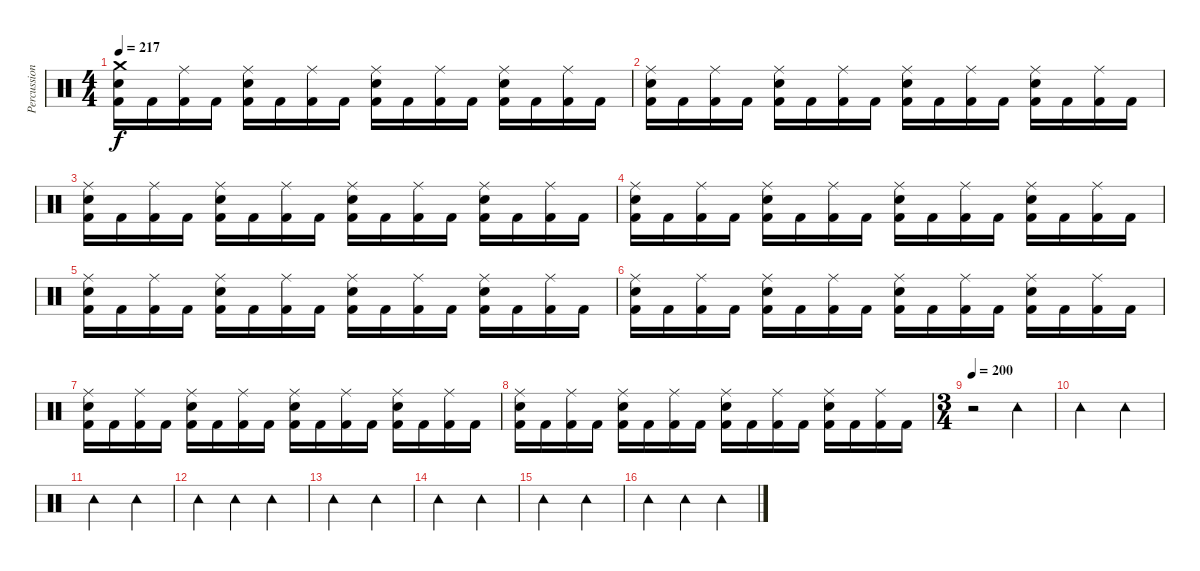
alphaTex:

\track ("Percussions" "Percussion") {instrument percussion}
\staff {score}
\articulation defaults
\ts (4 4)
\tempo 217
\clef neutral
\ks c
("Crash medium (hit)" "Electric Snare (hit)" "Kick (hit) 2").16{dy f} "Kick (hit) 2".16 ("Ride (middle)" "Kick (hit) 2").16 "Kick (hit) 2".16 ("Ride (middle)" "Electric Snare (hit)" "Kick (hit) 2").16 "Kick (hit) 2".16 ("Ride (middle)" "Kick (hit) 2").16 "Kick (hit) 2".16 ("Ride (middle)" "Electric Snare (hit)" "Kick (hit) 2").16 "Kick (hit) 2".16 ("Ride (middle)" "Kick (hit) 2").16 "Kick (hit) 2".16 ("Ride (middle)" "Electric Snare (hit)" "Kick (hit) 2").16 "Kick (hit) 2".16 ("Ride (middle)" "Kick (hit) 2").16 "Kick (hit) 2".16 |
("Ride (middle)" "Electric Snare (hit)" "Kick (hit) 2").16 "Kick (hit) 2".16 ("Ride (middle)" "Kick (hit) 2").16 "Kick (hit) 2".16 ("Ride (middle)" "Electric Snare (hit)" "Kick (hit) 2").16 "Kick (hit) 2".16 ("Ride (middle)" "Kick (hit) 2").16 "Kick (hit) 2".16 ("Ride (middle)" "Electric Snare (hit)" "Kick (hit) 2").16 "Kick (hit) 2".16 ("Ride (middle)" "Kick (hit) 2").16 "Kick (hit) 2".16 ("Ride (middle)" "Electric Snare (hit)" "Kick (hit) 2").16 "Kick (hit) 2".16 ("Ride (middle)" "Kick (hit) 2").16 "Kick (hit) 2".16 |
("Ride (middle)" "Electric Snare (hit)" "Kick (hit) 2").16 "Kick (hit) 2".16 ("Ride (middle)" "Kick (hit) 2").16 "Kick (hit) 2".16 ("Ride (middle)" "Electric Snare (hit)" "Kick (hit) 2").16 "Kick (hit) 2".16 ("Ride (middle)" "Kick (hit) 2").16 "Kick (hit) 2".16 ("Ride (middle)" "Electric Snare (hit)" "Kick (hit) 2").16 "Kick (hit) 2".16 ("Ride (middle)" "Kick (hit) 2").16 "Kick (hit) 2".16 ("Ride (middle)" "Electric Snare (hit)" "Kick (hit) 2").16 "Kick (hit) 2".16 ("Ride (middle)" "Kick (hit) 2").16 "Kick (hit) 2".16 |
("Ride (middle)" "Electric Snare (hit)" "Kick (hit) 2").16 "Kick (hit) 2".16 ("Ride (middle)" "Kick (hit) 2").16 "Kick (hit) 2".16 ("Ride (middle)" "Electric Snare (hit)" "Kick (hit) 2").16 "Kick (hit) 2".16 ("Ride (middle)" "Kick (hit) 2").16 "Kick (hit) 2".16 ("Ride (middle)" "Electric Snare (hit)" "Kick (hit) 2").16 "Kick (hit) 2".16 ("Ride (middle)" "Kick (hit) 2").16 "Kick (hit) 2".16 ("Ride (middle)" "Electric Snare (hit)" "Kick (hit) 2").16 "Kick (hit) 2".16 ("Ride (middle)" "Kick (hit) 2").16 "Kick (hit) 2".16 |
("Ride (middle)" "Electric Snare (hit)" "Kick (hit) 2").16 "Kick (hit) 2".16 ("Ride (middle)" "Kick (hit) 2").16 "Kick (hit) 2".16 ("Ride (middle)" "Electric Snare (hit)" "Kick (hit) 2").16 "Kick (hit) 2".16 ("Ride (middle)" "Kick (hit) 2").16 "Kick (hit) 2".16 ("Ride (middle)" "Electric Snare (hit)" "Kick (hit) 2").16 "Kick (hit) 2".16 ("Ride (middle)" "Kick (hit) 2").16 "Kick (hit) 2".16 ("Ride (middle)" "Electric Snare (hit)" "Kick (hit) 2").16 "Kick (hit) 2".16 ("Ride (middle)" "Kick (hit) 2").16 "Kick (hit) 2".16 |
("Ride (middle)" "Electric Snare (hit)" "Kick (hit) 2").16 "Kick (hit) 2".16 ("Ride (middle)" "Kick (hit) 2").16 "Kick (hit) 2".16 ("Ride (middle)" "Electric Snare (hit)" "Kick (hit) 2").16 "Kick (hit) 2".16 ("Ride (middle)" "Kick (hit) 2").16 "Kick (hit) 2".16 ("Ride (middle)" "Electric Snare (hit)" "Kick (hit) 2").16 "Kick (hit) 2".16 ("Ride (middle)" "Kick (hit) 2").16 "Kick (hit) 2".16 ("Ride (middle)" "Electric Snare (hit)" "Kick (hit) 2").16 "Kick (hit) 2".16 ("Ride (middle)" "Kick (hit) 2").16 "Kick (hit) 2".16 |
("Ride (middle)" "Electric Snare (hit)" "Kick (hit) 2").16 "Kick (hit) 2".16 ("Ride (middle)" "Kick (hit) 2").16 "Kick (hit) 2".16 ("Ride (middle)" "Electric Snare (hit)" "Kick (hit) 2").16 "Kick (hit) 2".16 ("Ride (middle)" "Kick (hit) 2").16 "Kick (hit) 2".16 ("Ride (middle)" "Electric Snare (hit)" "Kick (hit) 2").16 "Kick (hit) 2".16 ("Ride (middle)" "Kick (hit) 2").16 "Kick (hit) 2".16 ("Ride (middle)" "Electric Snare (hit)" "Kick (hit) 2").16 "Kick (hit) 2".16 ("Ride (middle)" "Kick (hit) 2").16 "Kick (hit) 2".16 |
("Ride (middle)" "Electric Snare (hit)" "Kick (hit) 2").16 "Kick (hit) 2".16 ("Ride (middle)" "Kick (hit) 2").16 "Kick (hit) 2".16 ("Ride (middle)" "Electric Snare (hit)" "Kick (hit) 2").16 "Kick (hit) 2".16 ("Ride (middle)" "Kick (hit) 2").16 "Kick (hit) 2".16 ("Ride (middle)" "Electric Snare (hit)" "Kick (hit) 2").16 "Kick (hit) 2".16 ("Ride (middle)" "Kick (hit) 2").16 "Kick (hit) 2".16 ("Ride (middle)" "Electric Snare (hit)" "Kick (hit) 2").16 "Kick (hit) 2".16 ("Ride (middle)" "Kick (hit) 2").16 "Kick (hit) 2".16 |
\ts (3 4)
\tempo 200
r.2 "Tambourine (hit)".4 |
"Tambourine (hit)".2 "Tambourine (hit)".4 |
"Tambourine (hit)".2 "Tambourine (hit)".4 |
"Tambourine (hit)".4 "Tambourine (hit)".4 "Tambourine (hit)".4 |
"Tambourine (hit)".2 "Tambourine (hit)".4 |
"Tambourine (hit)".2 "Tambourine (hit)".4 |
"Tambourine (hit)".2 "Tambourine (hit)".4 |
"Tambourine (hit)".4 "Tambourine (hit)".4 "Tambourine (hit)".4
